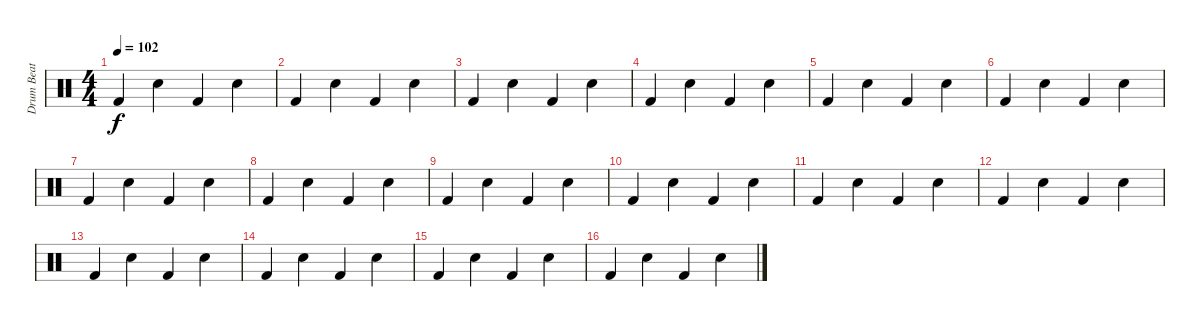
\track ("Drum Beat" "Drum Beat") {instrument percussion}
\staff {score}
\articulation defaults
\ts (4 4)
\tempo 102
\clef neutral
\ks c "Kick (hit) 2".4{dy f} "Electric Snare (hit)".4 "Kick (hit) 2".4 "Electric Snare (hit)".4
|
"Kick (hit) 2".4 "Electric Snare (hit)".4 "Kick (hit) 2".4 "Electric Snare (hit)".4 |
"Kick (hit) 2".4 "Electric Snare (hit)".4 "Kick (hit) 2".4 "Electric Snare (hit)".4 |
"Kick (hit) 2".4 "Electric Snare (hit)".4 "Kick (hit) 2".4 "Electric Snare (hit)".4 |
"Kick (hit) 2".4 "Electric Snare (hit)".4 "Kick (hit) 2".4 "Electric Snare (hit)".4 |
"Kick (hit) 2".4 "Electric Snare (hit)".4 "Kick (hit) 2".4 "Electric Snare (hit)".4 |
"Kick (hit) 2".4 "Electric Snare (hit)".4 "Kick (hit) 2".4 "Electric Snare (hit)".4 |
"Kick (hit) 2".4 "Electric Snare (hit)".4 "Kick (hit) 2".4 "Electric Snare (hit)".4 |
"Kick (hit) 2".4 "Electric Snare (hit)".4 "Kick (hit) 2".4 "Electric Snare (hit)".4 |
"Kick (hit) 2".4 "Electric Snare (hit)".4 "Kick (hit) 2".4 "Electric Snare (hit)".4 |
"Kick (hit) 2".4 "Electric Snare (hit)".4 "Kick (hit) 2".4 "Electric Snare (hit)".4 |
"Kick (hit) 2".4 "Electric Snare (hit)".4 "Kick (hit) 2".4 "Electric Snare (hit)".4 |
"Kick (hit) 2".4 "Electric Snare (hit)".4 "Kick (hit) 2".4 "Electric Snare (hit)".4 |
"Kick (hit) 2".4 "Electric Snare (hit)".4 "Kick (hit) 2".4 "Electric Snare (hit)".4 |
"Kick (hit) 2".4 "Electric Snare (hit)".4 "Kick (hit) 2".4 "Electric Snare (hit)".4 |
"Kick (hit) 2".4 "Electric Snare (hit)".4 "Kick (hit) 2".4 "Electric Snare (hit)".4
